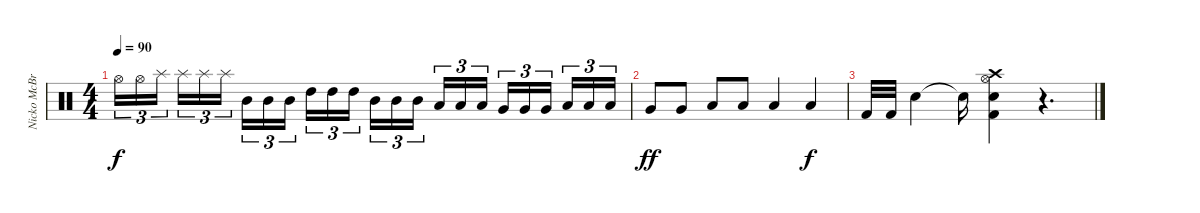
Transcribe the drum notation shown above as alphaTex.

\track ("Nicko McBrain" "Nicko McBr") {instrument percussion}
\staff {score}
\articulation defaults
\ts (4 4)
\tempo 90
\clef neutral
\ks c "Hi-Hat (open)".16{tu (3 2) dy f} "Hi-Hat (open)".16{tu (3 2)} "Splash (hit)".16{tu (3 2) beam splitsecondary} "Splash (hit)".16{tu (3 2)} "Splash (hit)".16{tu (3 2)} "Splash (hit)".16{tu (3 2)} "Mid Tom (hit)".16{tu (3 2)} "Mid Tom (hit)".16{tu (3 2)} "Mid Tom (hit)".16{tu (3 2) beam splitsecondary} "High Tom (hit)".16{tu (3 2)} "High Tom (hit)".16{tu (3 2)} "High Tom (hit)".16{tu (3 2)} "Mid Tom (hit)".16{tu (3 2)} "Mid Tom (hit)".16{tu (3 2)} "Mid Tom (hit)".16{tu (3 2) beam splitsecondary} "Low Tom (hit)".16{tu (3 2)} "Low Tom (hit)".16{tu (3 2)} "Low Tom (hit)".16{tu (3 2)} "Very Low Tom (hit)".16{tu (3 2)} "Very Low Tom (hit)".16{tu (3 2)} "Very Low Tom (hit)".16{tu (3 2) beam splitsecondary} "Low Floor Tom (hit)".16{tu (3 2)} "Low Floor Tom (hit)".16{tu (3 2)} "Low Floor Tom (hit)".16{tu (3 2)}
|
"Very Low Tom (hit)".8{dy ff} "Very Low Tom (hit)".8 "Low Floor Tom (hit)".8 "Low Floor Tom (hit)".8 "Low Floor Tom (hit)".4 "Low Floor Tom (hit)".4{dy f} |
"Kick (hit) 2".32 "Kick (hit) 2".32 "Snare (hit) 2".4 "Snare (hit) 2"{t}.16 ("Snare (hit) 2" "Kick (hit) 2" "Hi-Hat (open)" "Crash high (hit)").4 r.4{d}
